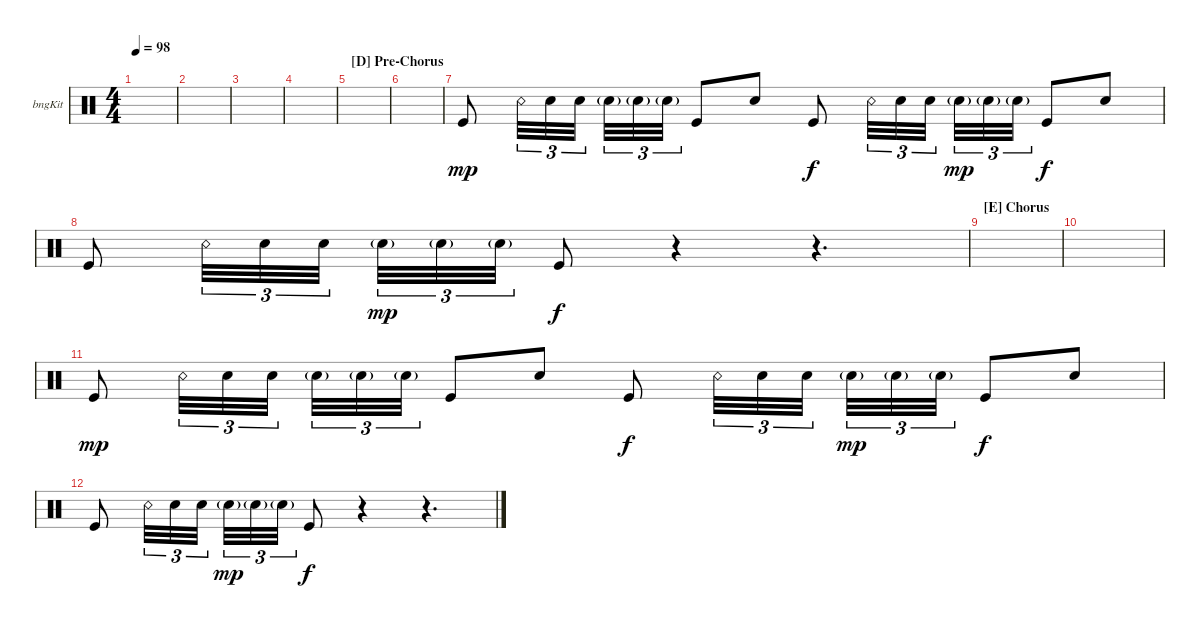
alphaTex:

\defaultSystemsLayout 4
\bracketExtendMode groupsimilarinstruments
\firstSystemTrackNameOrientation horizontal
\otherSystemsTrackNameOrientation horizontal
\track ("Bongos" "bngKit") {instrument percussion}
\staff {score}
\articulation defaults
\ts (4 4)
\tempo 98
\clef neutral
\ks c
|
|
|
|
\section ("D" "Pre-Chorus")
|
|
"Kick (hit)".8{dy mp} "Snare (rim shot)".32{tu (3 2)} "Snare (hit) 2".32{tu (3 2)} "Snare (hit) 2".32{tu (3 2)} "Snare (hit) 2"{g}.32{tu (3 2)} "Snare (hit) 2"{g}.32{tu (3 2)} "Snare (hit) 2"{g}.32{tu (3 2)} "Kick (hit)".8 "Snare (hit) 2".8 "Kick (hit)".8{dy f} "Snare (rim shot)".32{tu (3 2)} "Snare (hit) 2".32{tu (3 2)} "Snare (hit) 2".32{tu (3 2)} "Snare (hit) 2"{g}.32{tu (3 2) dy mp} "Snare (hit) 2"{g}.32{tu (3 2)} "Snare (hit) 2"{g}.32{tu (3 2)} "Kick (hit)".8{dy f} "Snare (hit) 2".8 |
"Kick (hit)".8 "Snare (rim shot)".32{tu (3 2)} "Snare (hit) 2".32{tu (3 2)} "Snare (hit) 2".32{tu (3 2)} "Snare (hit) 2"{g}.32{tu (3 2) dy mp} "Snare (hit) 2"{g}.32{tu (3 2)} "Snare (hit) 2"{g}.32{tu (3 2)} "Kick (hit)".8{dy f} r.4 r.4{d} |
\section ("E" "Chorus")
|
|
"Kick (hit)".8{dy mp} "Snare (rim shot)".32{tu (3 2)} "Snare (hit) 2".32{tu (3 2)} "Snare (hit) 2".32{tu (3 2)} "Snare (hit) 2"{g}.32{tu (3 2)} "Snare (hit) 2"{g}.32{tu (3 2)} "Snare (hit) 2"{g}.32{tu (3 2)} "Kick (hit)".8 "Snare (hit) 2".8 "Kick (hit)".8{dy f} "Snare (rim shot)".32{tu (3 2)} "Snare (hit) 2".32{tu (3 2)} "Snare (hit) 2".32{tu (3 2)} "Snare (hit) 2"{g}.32{tu (3 2) dy mp} "Snare (hit) 2"{g}.32{tu (3 2)} "Snare (hit) 2"{g}.32{tu (3 2)} "Kick (hit)".8{dy f} "Snare (hit) 2".8 |
"Kick (hit)".8 "Snare (rim shot)".32{tu (3 2)} "Snare (hit) 2".32{tu (3 2)} "Snare (hit) 2".32{tu (3 2)} "Snare (hit) 2"{g}.32{tu (3 2) dy mp} "Snare (hit) 2"{g}.32{tu (3 2)} "Snare (hit) 2"{g}.32{tu (3 2)} "Kick (hit)".8{dy f} r.4 r.4{d}
